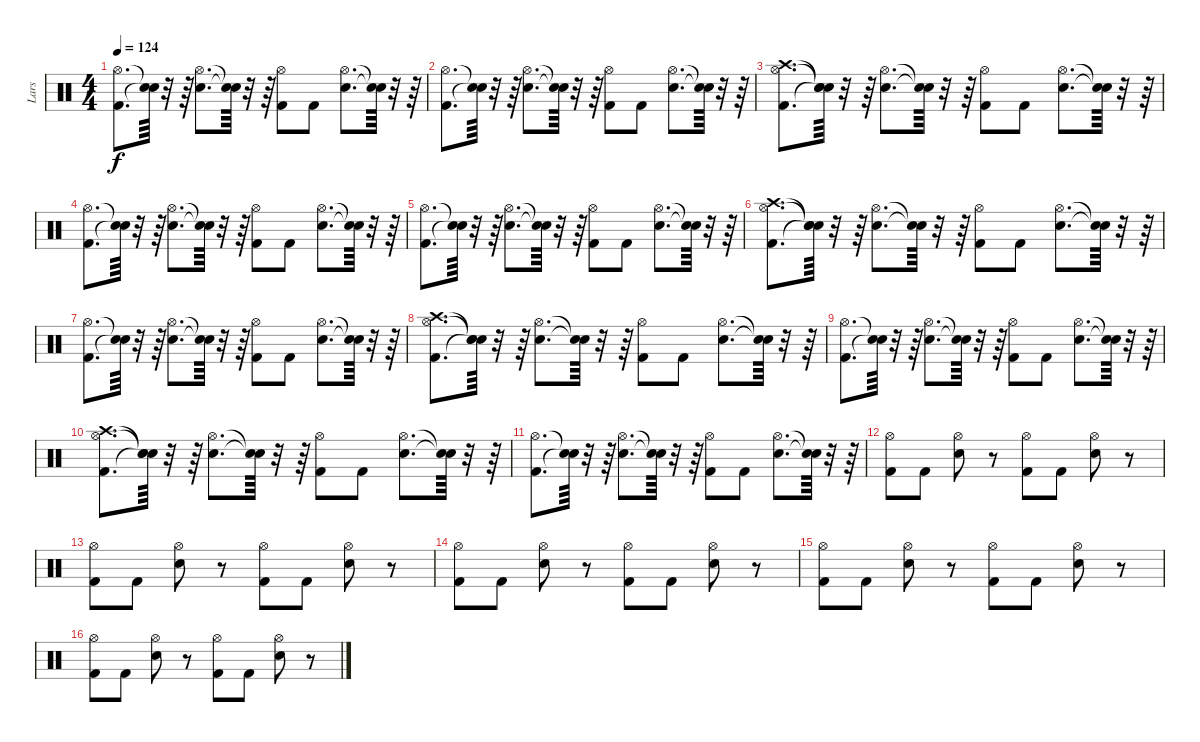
\track ("Lars" "Lars") {instrument percussion}
\staff {score}
\articulation defaults
\ts (4 4)
\tempo 124
\clef neutral
\ks c
("Kick (hit) 2" "Hi-Hat (open)").8{d dy f} ("Snare (hit)"{t} "Snare (hit)"{t}).64 r.32 r.64 ("Snare (hit) 2" "Hi-Hat (open)").8{d} ("Snare (hit)"{t} "Snare (hit)"{t}).64 r.32 r.64 ("Kick (hit) 2" "Hi-Hat (open)").8 "Kick (hit) 2".8 ("Snare (hit) 2" "Hi-Hat (open)").8{d} ("Snare (hit)"{t} "Snare (hit)"{t}).64 r.32 r.64 |
("Kick (hit) 2" "Hi-Hat (open)").8{d} ("Snare (hit)"{t} "Snare (hit)"{t}).64 r.32 r.64 ("Snare (hit) 2" "Hi-Hat (open)").8{d} ("Snare (hit)"{t} "Snare (hit)"{t}).64 r.32 r.64 ("Kick (hit) 2" "Hi-Hat (open)").8 "Kick (hit) 2".8 ("Snare (hit) 2" "Hi-Hat (open)").8{d} ("Snare (hit)"{t} "Snare (hit)"{t}).64 r.32 r.64 |
("Kick (hit) 2" "Hi-Hat (open)" "Crash high (hit)").8{d} ("Snare (hit)"{t} "Snare (hit)"{t} "Snare (hit)"{t}).64 r.32 r.64 ("Snare (hit) 2" "Hi-Hat (open)").8{d} ("Snare (hit)"{t} "Snare (hit)"{t}).64 r.32 r.64 ("Kick (hit) 2" "Hi-Hat (open)").8 "Kick (hit) 2".8 ("Snare (hit) 2" "Hi-Hat (open)").8{d} ("Snare (hit)"{t} "Snare (hit)"{t}).64 r.32 r.64 |
("Kick (hit) 2" "Hi-Hat (open)").8{d} ("Snare (hit)"{t} "Snare (hit)"{t}).64 r.32 r.64 ("Snare (hit) 2" "Hi-Hat (open)").8{d} ("Snare (hit)"{t} "Snare (hit)"{t}).64 r.32 r.64 ("Kick (hit) 2" "Hi-Hat (open)").8 "Kick (hit) 2".8 ("Snare (hit) 2" "Hi-Hat (open)").8{d} ("Snare (hit)"{t} "Snare (hit)"{t}).64 r.32 r.64 |
("Kick (hit) 2" "Hi-Hat (open)").8{d} ("Snare (hit)"{t} "Snare (hit)"{t}).64 r.32 r.64 ("Snare (hit) 2" "Hi-Hat (open)").8{d} ("Snare (hit)"{t} "Snare (hit)"{t}).64 r.32 r.64 ("Kick (hit) 2" "Hi-Hat (open)").8 "Kick (hit) 2".8 ("Snare (hit) 2" "Hi-Hat (open)").8{d} ("Snare (hit)"{t} "Snare (hit)"{t}).64 r.32 r.64 |
("Kick (hit) 2" "Hi-Hat (open)" "Crash high (hit)").8{d} ("Snare (hit)"{t} "Snare (hit)"{t} "Snare (hit)"{t}).64 r.32 r.64 ("Snare (hit) 2" "Hi-Hat (open)").8{d} ("Snare (hit)"{t} "Snare (hit)"{t}).64 r.32 r.64 ("Kick (hit) 2" "Hi-Hat (open)").8 "Kick (hit) 2".8 ("Snare (hit) 2" "Hi-Hat (open)").8{d} ("Snare (hit)"{t} "Snare (hit)"{t}).64 r.32 r.64 |
("Kick (hit) 2" "Hi-Hat (open)").8{d} ("Snare (hit)"{t} "Snare (hit)"{t}).64 r.32 r.64 ("Snare (hit) 2" "Hi-Hat (open)").8{d} ("Snare (hit)"{t} "Snare (hit)"{t}).64 r.32 r.64 ("Kick (hit) 2" "Hi-Hat (open)").8 "Kick (hit) 2".8 ("Snare (hit) 2" "Hi-Hat (open)").8{d} ("Snare (hit)"{t} "Snare (hit)"{t}).64 r.32 r.64 |
("Kick (hit) 2" "Hi-Hat (open)" "Crash high (hit)").8{d} ("Snare (hit)"{t} "Snare (hit)"{t} "Snare (hit)"{t}).64 r.32 r.64 ("Snare (hit) 2" "Hi-Hat (open)").8{d} ("Snare (hit)"{t} "Snare (hit)"{t}).64 r.32 r.64 ("Kick (hit) 2" "Hi-Hat (open)").8 "Kick (hit) 2".8 ("Snare (hit) 2" "Hi-Hat (open)").8{d} ("Snare (hit)"{t} "Snare (hit)"{t}).64 r.32 r.64 |
("Kick (hit) 2" "Hi-Hat (open)").8{d} ("Snare (hit)"{t} "Snare (hit)"{t}).64 r.32 r.64 ("Snare (hit) 2" "Hi-Hat (open)").8{d} ("Snare (hit)"{t} "Snare (hit)"{t}).64 r.32 r.64 ("Kick (hit) 2" "Hi-Hat (open)").8 "Kick (hit) 2".8 ("Snare (hit) 2" "Hi-Hat (open)").8{d} ("Snare (hit)"{t} "Snare (hit)"{t}).64 r.32 r.64 |
("Kick (hit) 2" "Hi-Hat (open)" "Crash high (hit)").8{d} ("Snare (hit)"{t} "Snare (hit)"{t} "Snare (hit)"{t}).64 r.32 r.64 ("Snare (hit) 2" "Hi-Hat (open)").8{d} ("Snare (hit)"{t} "Snare (hit)"{t}).64 r.32 r.64 ("Kick (hit) 2" "Hi-Hat (open)").8 "Kick (hit) 2".8 ("Snare (hit) 2" "Hi-Hat (open)").8{d} ("Snare (hit)"{t} "Snare (hit)"{t}).64 r.32 r.64 |
("Kick (hit) 2" "Hi-Hat (open)").8{d} ("Snare (hit)"{t} "Snare (hit)"{t}).64 r.32 r.64 ("Snare (hit) 2" "Hi-Hat (open)").8{d} ("Snare (hit)"{t} "Snare (hit)"{t}).64 r.32 r.64 ("Kick (hit) 2" "Hi-Hat (open)").8 "Kick (hit) 2".8 ("Snare (hit) 2" "Hi-Hat (open)").8{d} ("Snare (hit)"{t} "Snare (hit)"{t}).64 r.32 r.64 |
("Kick (hit) 2" "Hi-Hat (open)").8 "Kick (hit) 2".8 ("Snare (hit) 2" "Hi-Hat (open)").8 r.8 ("Kick (hit) 2" "Hi-Hat (open)").8 "Kick (hit) 2".8 ("Snare (hit) 2" "Hi-Hat (open)").8 r.8 |
("Kick (hit) 2" "Hi-Hat (open)").8 "Kick (hit) 2".8 ("Snare (hit) 2" "Hi-Hat (open)").8 r.8 ("Kick (hit) 2" "Hi-Hat (open)").8 "Kick (hit) 2".8 ("Snare (hit) 2" "Hi-Hat (open)").8 r.8 |
("Kick (hit) 2" "Hi-Hat (open)").8 "Kick (hit) 2".8 ("Snare (hit) 2" "Hi-Hat (open)").8 r.8 ("Kick (hit) 2" "Hi-Hat (open)").8 "Kick (hit) 2".8 ("Snare (hit) 2" "Hi-Hat (open)").8 r.8 |
("Kick (hit) 2" "Hi-Hat (open)").8 "Kick (hit) 2".8 ("Snare (hit) 2" "Hi-Hat (open)").8 r.8 ("Kick (hit) 2" "Hi-Hat (open)").8 "Kick (hit) 2".8 ("Snare (hit) 2" "Hi-Hat (open)").8 r.8 |
("Kick (hit) 2" "Hi-Hat (open)").8 "Kick (hit) 2".8 ("Snare (hit) 2" "Hi-Hat (open)").8 r.8 ("Kick (hit) 2" "Hi-Hat (open)").8 "Kick (hit) 2".8 ("Snare (hit) 2" "Hi-Hat (open)").8 r.8
